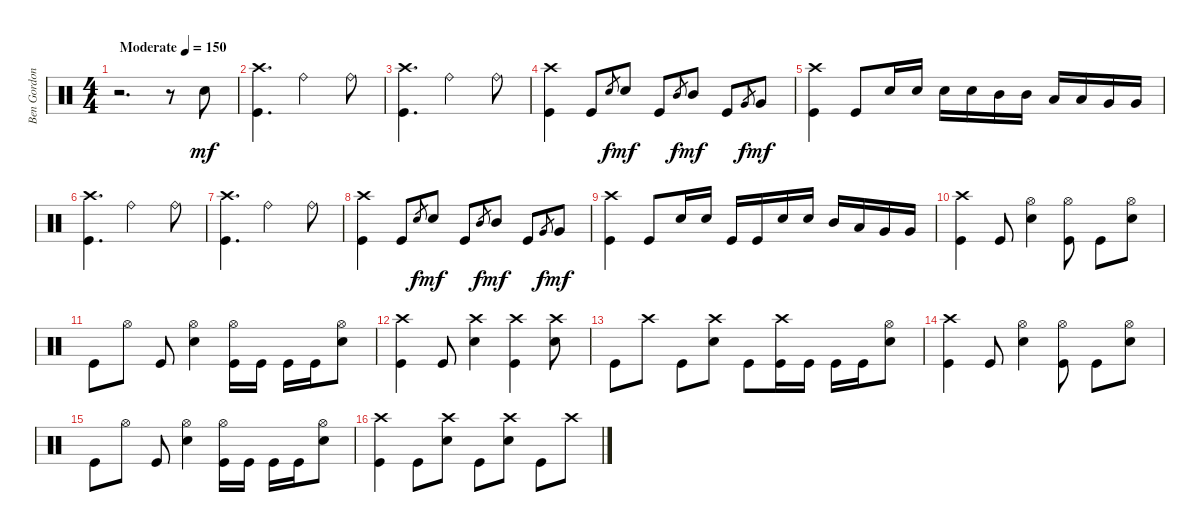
\track ("Ben Gordon" "Ben Gordon") {instrument percussion}
\staff {score}
\articulation defaults
\ts (4 4)
\tempo (150 "Moderate")
\clef neutral
\ks c
r.2{d dy mf} r.8 "Snare (hit) 2".8 |
("Crash high (hit)" "Kick (hit)").4{d} "Ride (bell)".2 "Ride (bell)".8 |
("Crash high (hit)" "Kick (hit)").4{d} "Ride (bell)".2 "Ride (bell)".8 |
("Crash high (hit)" "Kick (hit)").4 "Kick (hit)".8 "Snare (hit) 2".8{gr dy f} "Snare (hit) 2".8{dy mf} "Kick (hit)".8 "Mid Tom (hit)".8{gr dy f} "Mid Tom (hit)".8{dy mf} "Kick (hit)".8 "Very Low Tom (hit)".8{gr dy f} "Very Low Tom (hit)".8{dy mf} |
("Crash high (hit)" "Kick (hit)").4 "Kick (hit)".8 "Snare (hit) 2".16 "Snare (hit) 2".16 "Snare (hit) 2".16 "Snare (hit) 2".16 "Mid Tom (hit)".16 "Mid Tom (hit)".16 "Low Tom (hit)".16 "Low Tom (hit)".16 "Very Low Tom (hit)".16 "Very Low Tom (hit)".16 |
("Crash high (hit)" "Kick (hit)").4{d} "Ride (bell)".2 "Ride (bell)".8 |
("Crash high (hit)" "Kick (hit)").4{d} "Ride (bell)".2 "Ride (bell)".8 |
("Crash high (hit)" "Kick (hit)").4 "Kick (hit)".8 "Snare (hit) 2".8{gr dy f} "Snare (hit) 2".8{dy mf} "Kick (hit)".8 "Mid Tom (hit)".8{gr dy f} "Mid Tom (hit)".8{dy mf} "Kick (hit)".8 "Very Low Tom (hit)".8{gr dy f} "Very Low Tom (hit)".8{dy mf} |
("Crash high (hit)" "Kick (hit)").4 "Kick (hit)".8 "Snare (hit) 2".16 "Snare (hit) 2".16 "Kick (hit)".16 "Kick (hit)".16 "Snare (hit) 2".16 "Snare (hit) 2".16 "Mid Tom (hit)".16 "Low Tom (hit)".16 "Very Low Tom (hit)".16 "Very Low Tom (hit)".16 |
("Crash high (hit)" "Kick (hit)").4 "Kick (hit)".8 ("Hi-Hat (open)" "Snare (hit) 2").4 ("Hi-Hat (open)" "Kick (hit)").8 "Kick (hit)".8 ("Hi-Hat (open)" "Snare (hit) 2").8 |
"Kick (hit)".8 "Hi-Hat (open)".8 "Kick (hit)".8 ("Hi-Hat (open)" "Snare (hit) 2").4 ("Hi-Hat (open)" "Kick (hit)").16 "Kick (hit)".16 "Kick (hit)".16 "Kick (hit)".16 ("Hi-Hat (open)" "Snare (hit) 2").8 |
("Crash high (hit)" "Kick (hit)").4 "Kick (hit)".8 ("Crash high (hit)" "Snare (hit) 2").4 ("Crash high (hit)" "Kick (hit)").4 ("Crash high (hit)" "Snare (hit) 2").8 |
"Kick (hit)".8 "Crash high (hit)".8 "Kick (hit)".8 ("Crash high (hit)" "Snare (hit) 2").8 "Kick (hit)".8 ("Crash high (hit)" "Kick (hit)").16 "Kick (hit)".16 "Kick (hit)".16 "Kick (hit)".16 ("Hi-Hat (open)" "Snare (hit) 2").8 |
("Crash high (hit)" "Kick (hit)").4 "Kick (hit)".8 ("Hi-Hat (open)" "Snare (hit) 2").4 ("Hi-Hat (open)" "Kick (hit)").8 "Kick (hit)".8 ("Hi-Hat (open)" "Snare (hit) 2").8 |
"Kick (hit)".8 "Hi-Hat (open)".8 "Kick (hit)".8 ("Hi-Hat (open)" "Snare (hit) 2").4 ("Hi-Hat (open)" "Kick (hit)").16 "Kick (hit)".16 "Kick (hit)".16 "Kick (hit)".16 ("Hi-Hat (open)" "Snare (hit) 2").8 |
("Crash high (hit)" "Kick (hit)").4 "Kick (hit)".8 ("Crash high (hit)" "Snare (hit) 2").8 "Kick (hit)".8 ("Crash high (hit)" "Snare (hit) 2").8 "Kick (hit)".8 "Crash high (hit)".8
